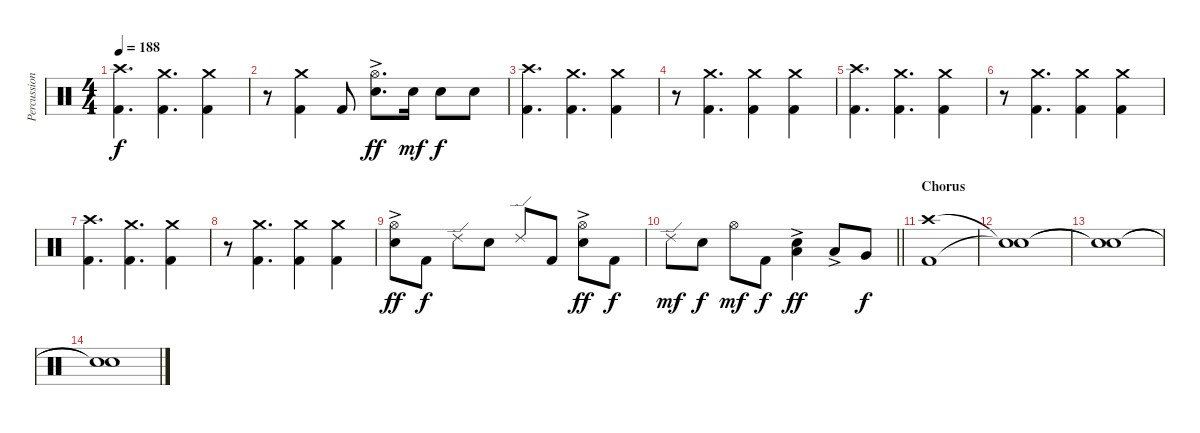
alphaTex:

\track ("Percussion" "Percussion") {instrument percussion}
\staff {score}
\articulation defaults
\ts (4 4)
\tempo 188
\clef neutral
\ks c
("Crash high (hit)" "Kick (hit) 2").4{d dy f} ("Crash medium (hit)" "Kick (hit) 2").4{d} ("Crash medium (hit)" "Kick (hit) 2").4 |
r.8 ("Crash medium (hit)" "Kick (hit) 2").4 "Kick (hit) 2".8 ("Hi-Hat (open)" "Electric Snare (hit)"{ac}).8{d dy ff} "Electric Snare (hit)".16{dy mf} "Electric Snare (hit)".8{dy f} "Electric Snare (hit)".8 |
("Crash high (hit)" "Kick (hit) 2").4{d} ("Crash medium (hit)" "Kick (hit) 2").4{d} ("Crash medium (hit)" "Kick (hit) 2").4 |
r.8 ("Crash medium (hit)" "Kick (hit) 2").4{d} ("Crash medium (hit)" "Kick (hit) 2").4 ("Crash medium (hit)" "Kick (hit) 2").4 |
("Crash high (hit)" "Kick (hit) 2").4{d} ("Crash medium (hit)" "Kick (hit) 2").4{d} ("Crash medium (hit)" "Kick (hit) 2").4 |
r.8 ("Crash medium (hit)" "Kick (hit) 2").4{d} ("Crash medium (hit)" "Kick (hit) 2").4 ("Crash medium (hit)" "Kick (hit) 2").4 |
("Crash high (hit)" "Kick (hit) 2").4{d} ("Crash medium (hit)" "Kick (hit) 2").4{d} ("Crash medium (hit)" "Kick (hit) 2").4 |
r.8 ("Crash medium (hit)" "Kick (hit) 2").4{d} ("Crash medium (hit)" "Kick (hit) 2").4 ("Crash medium (hit)" "Kick (hit) 2").4 |
("Hi-Hat (open)" "Electric Snare (hit)"{ac}).8{dy ff} "Kick (hit) 2".8{dy f} "Ride (edge) 2".8 "Electric Snare (hit)".8 "Ride (edge) 2".8 "Kick (hit) 2".8 ("Hi-Hat (open)" "Electric Snare (hit)"{ac}).8{dy ff} "Kick (hit) 2".8{dy f} |
\barLineRight lightlight "Ride (edge) 2".8{dy mf} "Electric Snare (hit)".8{dy f} "Hi-Hat (open)".8{dy mf} "Kick (hit) 2".8{dy f}
("Low Tom (hit)" "Electric Snare (hit)"{ac}).4{bu 120 dy ff} "Low Tom (hit)"{ac}.8 "Very Low Tom (hit)".8{dy f} |
\section ("" "Chorus")
("Crash high (hit)" "Kick (hit) 2").1 |
("Snare (hit)"{t} "Snare (hit)"{t}).1 |
("Snare (hit)"{t} "Snare (hit)"{t}).1 |
("Snare (hit)"{t} "Snare (hit)"{t}).1
